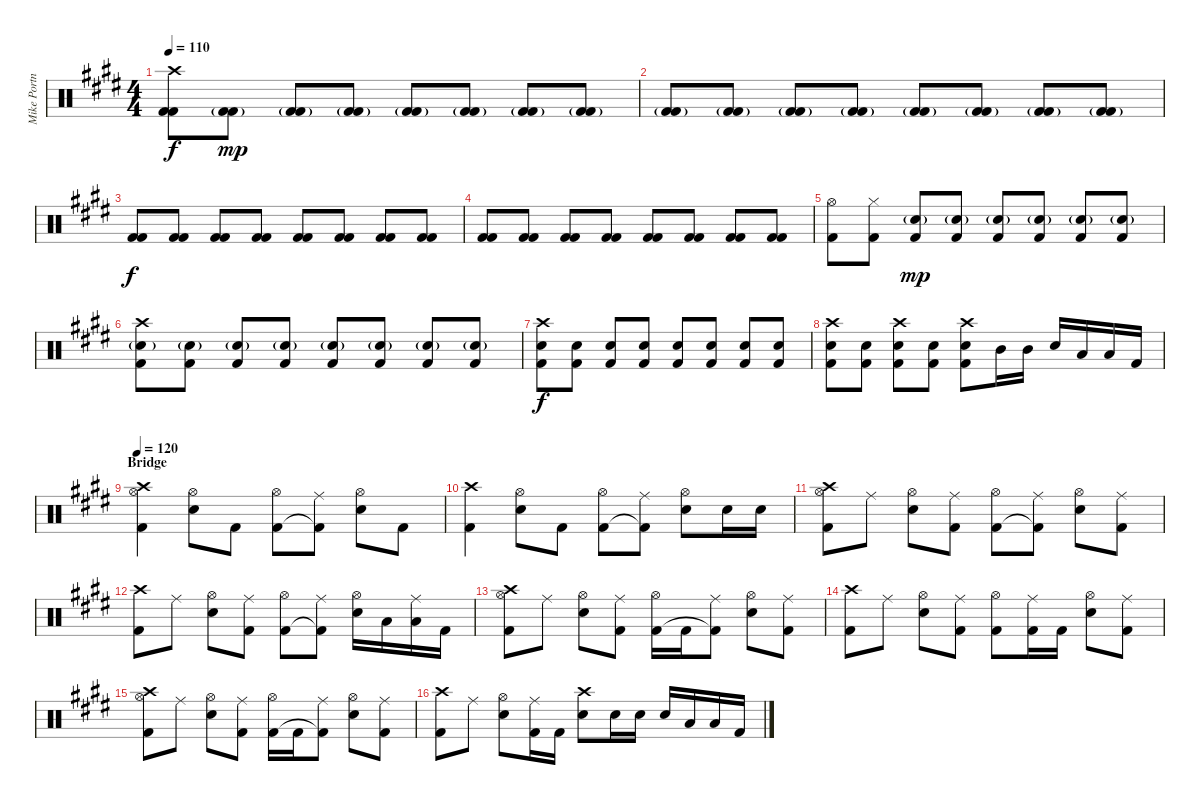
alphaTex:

\track ("Mike Portnoy Drums/Pecussion" "Mike Portn") {instrument percussion}
\staff {score}
\articulation defaults
\ts (4 4)
\tempo 110
\clef neutral
\ks e
("Crash high (hit)" "Kick (hit) 2" "Kick (hit) 2").8{dy f} ("Kick (hit) 2"{g} "Kick (hit) 2").8{dy mp} ("Kick (hit) 2"{g} "Kick (hit) 2").8 ("Kick (hit) 2"{g} "Kick (hit) 2").8 ("Kick (hit) 2"{g} "Kick (hit) 2").8 ("Kick (hit) 2"{g} "Kick (hit) 2").8 ("Kick (hit) 2"{g} "Kick (hit) 2").8 ("Kick (hit) 2"{g} "Kick (hit) 2").8 |
("Kick (hit) 2"{g} "Kick (hit) 2").8 ("Kick (hit) 2"{g} "Kick (hit) 2").8 ("Kick (hit) 2"{g} "Kick (hit) 2").8 ("Kick (hit) 2"{g} "Kick (hit) 2").8 ("Kick (hit) 2"{g} "Kick (hit) 2").8 ("Kick (hit) 2"{g} "Kick (hit) 2").8 ("Kick (hit) 2"{g} "Kick (hit) 2").8 ("Kick (hit) 2"{g} "Kick (hit) 2").8 |
("Kick (hit) 2" "Kick (hit) 2").8{dy f} ("Kick (hit) 2" "Kick (hit) 2").8 ("Kick (hit) 2" "Kick (hit) 2").8 ("Kick (hit) 2" "Kick (hit) 2").8 ("Kick (hit) 2" "Kick (hit) 2").8 ("Kick (hit) 2" "Kick (hit) 2").8 ("Kick (hit) 2" "Kick (hit) 2").8 ("Kick (hit) 2" "Kick (hit) 2").8 |
("Kick (hit) 2" "Kick (hit) 2").8 ("Kick (hit) 2" "Kick (hit) 2").8 ("Kick (hit) 2" "Kick (hit) 2").8 ("Kick (hit) 2" "Kick (hit) 2").8 ("Kick (hit) 2" "Kick (hit) 2").8 ("Kick (hit) 2" "Kick (hit) 2").8 ("Kick (hit) 2" "Kick (hit) 2").8 ("Kick (hit) 2" "Kick (hit) 2").8 |
("Hi-Hat (open)" "Kick (hit) 2").8 ("Hi-Hat (closed)" "Kick (hit) 2").8 ("Snare (hit) 2"{g} "Kick (hit) 2").8{dy mp} ("Snare (hit) 2"{g} "Kick (hit) 2").8 ("Snare (hit) 2"{g} "Kick (hit) 2").8 ("Snare (hit) 2"{g} "Kick (hit) 2").8 ("Snare (hit) 2"{g} "Kick (hit) 2").8 ("Snare (hit) 2"{g} "Kick (hit) 2").8 |
("Crash high (hit)" "Snare (hit) 2"{g} "Kick (hit) 2").8 ("Snare (hit) 2"{g} "Kick (hit) 2").8 ("Snare (hit) 2"{g} "Kick (hit) 2").8 ("Snare (hit) 2"{g} "Kick (hit) 2").8 ("Snare (hit) 2"{g} "Kick (hit) 2").8 ("Snare (hit) 2"{g} "Kick (hit) 2").8 ("Snare (hit) 2"{g} "Kick (hit) 2").8 ("Snare (hit) 2"{g} "Kick (hit) 2").8 |
("Crash high (hit)" "Snare (hit) 2" "Kick (hit) 2").8{dy f} ("Snare (hit) 2" "Kick (hit) 2").8 ("Snare (hit) 2" "Kick (hit) 2").8 ("Snare (hit) 2" "Kick (hit) 2").8 ("Snare (hit) 2" "Kick (hit) 2").8 ("Snare (hit) 2" "Kick (hit) 2").8 ("Snare (hit) 2" "Kick (hit) 2").8 ("Snare (hit) 2" "Kick (hit) 2").8 |
("Crash high (hit)" "Snare (hit) 2" "Kick (hit) 2").8 ("Snare (hit) 2" "Kick (hit) 2").8 ("Crash high (hit)" "Snare (hit) 2" "Kick (hit) 2").8 ("Snare (hit) 2" "Kick (hit) 2").8 ("Crash high (hit)" "Snare (hit) 2" "Kick (hit) 2").8 "Mid Tom (hit)".16 "Mid Tom (hit)".16 "Snare (hit) 2".16 "Low Tom (hit)".16 "Low Floor Tom (hit)".16 "Kick (hit) 2".16 |
\section ("" "Bridge")
\tempo 120
("Crash high (hit)" "Hi-Hat (open)" "Kick (hit) 2").4 ("Hi-Hat (open)" "Snare (hit) 2").8 "Kick (hit) 2".8 ("Hi-Hat (open)" "Kick (hit) 2").8 ("Ride (middle)" "Kick (hit) 2"{t}).8 ("Hi-Hat (open)" "Snare (hit) 2").8 "Kick (hit) 2".8 |
("Crash high (hit)" "Kick (hit) 2").4 ("Hi-Hat (open)" "Snare (hit) 2").8 "Kick (hit) 2".8 ("Hi-Hat (open)" "Kick (hit) 2").8 ("Ride (middle)" "Kick (hit) 2"{t}).8 ("Hi-Hat (open)" "Snare (hit) 2").8 "Snare (hit) 2".16 "Snare (hit) 2".16 |
("Crash high (hit)" "Hi-Hat (open)" "Kick (hit) 2").8 "Ride (middle)".8 ("Hi-Hat (open)" "Snare (hit) 2").8 ("Ride (middle)" "Kick (hit) 2").8 ("Hi-Hat (open)" "Kick (hit) 2").8 ("Ride (middle)" "Kick (hit) 2"{t}).8 ("Hi-Hat (open)" "Snare (hit) 2").8 ("Ride (middle)" "Kick (hit) 2").8 |
("Crash high (hit)" "Kick (hit) 2").8 "Ride (middle)".8 ("Hi-Hat (open)" "Snare (hit) 2").8 ("Ride (middle)" "Kick (hit) 2").8 ("Hi-Hat (open)" "Kick (hit) 2").8 ("Ride (middle)" "Kick (hit) 2"{t}).8 ("Hi-Hat (open)" "Snare (hit) 2").16 "Low Tom (hit)".16 ("Ride (middle)" "Low Floor Tom (hit)").16 "Kick (hit) 2".16 |
("Crash high (hit)" "Hi-Hat (open)" "Kick (hit) 2").8 "Ride (middle)".8 ("Hi-Hat (open)" "Snare (hit) 2").8 ("Ride (middle)" "Kick (hit) 2").8 ("Hi-Hat (open)" "Kick (hit) 2").16 "Kick (hit) 2".16 ("Ride (middle)" "Kick (hit) 2"{t}).8 ("Hi-Hat (open)" "Snare (hit) 2").8 ("Ride (middle)" "Kick (hit) 2").8 |
("Crash high (hit)" "Kick (hit) 2").8 "Ride (middle)".8 ("Hi-Hat (open)" "Snare (hit) 2").8 ("Ride (middle)" "Kick (hit) 2").8 ("Hi-Hat (open)" "Kick (hit) 2").8 ("Ride (middle)" "Kick (hit) 2").16 "Kick (hit) 2".16 ("Hi-Hat (open)" "Snare (hit) 2").8 ("Ride (middle)" "Kick (hit) 2").8 |
("Crash high (hit)" "Hi-Hat (open)" "Kick (hit) 2").8 "Ride (middle)".8 ("Hi-Hat (open)" "Snare (hit) 2").8 ("Ride (middle)" "Kick (hit) 2").8 ("Hi-Hat (open)" "Kick (hit) 2").16 "Kick (hit) 2".16 ("Ride (middle)" "Kick (hit) 2"{t}).8 ("Hi-Hat (open)" "Snare (hit) 2").8 ("Ride (middle)" "Kick (hit) 2").8 |
("Crash high (hit)" "Kick (hit) 2").8 "Ride (middle)".8 ("Hi-Hat (open)" "Snare (hit) 2").8 ("Ride (middle)" "Kick (hit) 2").16 "Kick (hit) 2".16 ("Crash high (hit)" "Snare (hit) 2").8 "Snare (hit) 2".16 "Snare (hit) 2".16 "Snare (hit) 2".16 "Low Tom (hit)".16 "Low Floor Tom (hit)".16 "Kick (hit) 2".16
